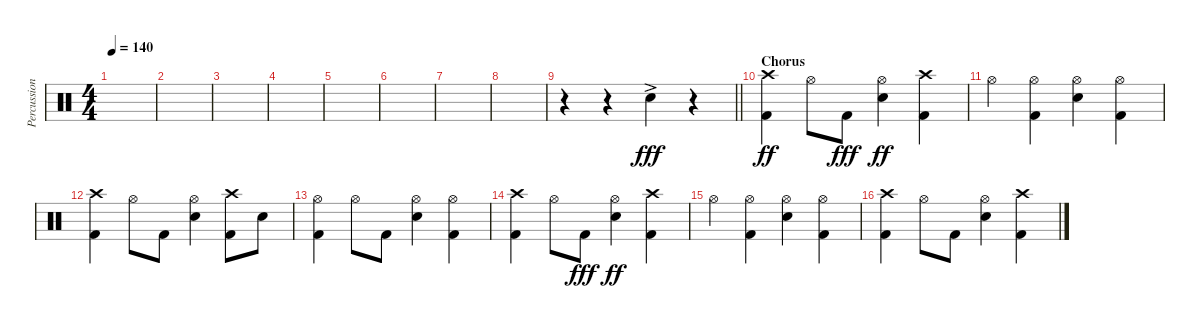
\track ("Percussion" "Percussion") {instrument percussion}
\staff {score}
\articulation defaults
\ts (4 4)
\tempo 140
\clef neutral
\ks c
|
|
|
|
|
|
|
|
\barLineRight lightlight
r.4 r.4 "Snare (hit) 2"{ac}.4{dy fff} r.4 |
\section ("" "Chorus")
("Crash high (hit)" "Kick (hit) 2").4{dy ff} "Hi-Hat (open)".8 "Kick (hit) 2".8{dy fff} ("Hi-Hat (open)" "Snare (hit) 2").4{dy ff} ("Crash high (hit)" "Kick (hit) 2").4 |
"Hi-Hat (open)".4 ("Hi-Hat (open)" "Kick (hit) 2").4 ("Hi-Hat (open)" "Snare (hit) 2").4 ("Hi-Hat (open)" "Kick (hit) 2").4 |
("Crash high (hit)" "Kick (hit) 2").4 "Hi-Hat (open)".8 "Kick (hit) 2".8 ("Hi-Hat (open)" "Snare (hit) 2").4 ("Crash high (hit)" "Kick (hit) 2").8 "Snare (hit) 2".8 |
("Hi-Hat (open)" "Kick (hit) 2").4 "Hi-Hat (open)".8 "Kick (hit) 2".8 ("Hi-Hat (open)" "Snare (hit) 2").4 ("Hi-Hat (open)" "Kick (hit) 2").4 |
("Crash high (hit)" "Kick (hit) 2").4 "Hi-Hat (open)".8 "Kick (hit) 2".8{dy fff} ("Hi-Hat (open)" "Snare (hit) 2").4{dy ff} ("Crash high (hit)" "Kick (hit) 2").4 |
"Hi-Hat (open)".4 ("Hi-Hat (open)" "Kick (hit) 2").4 ("Hi-Hat (open)" "Snare (hit) 2").4 ("Hi-Hat (open)" "Kick (hit) 2").4 |
("Crash high (hit)" "Kick (hit) 2").4 "Hi-Hat (open)".8 "Kick (hit) 2".8 ("Hi-Hat (open)" "Snare (hit) 2").4 ("Crash high (hit)" "Kick (hit) 2").4
